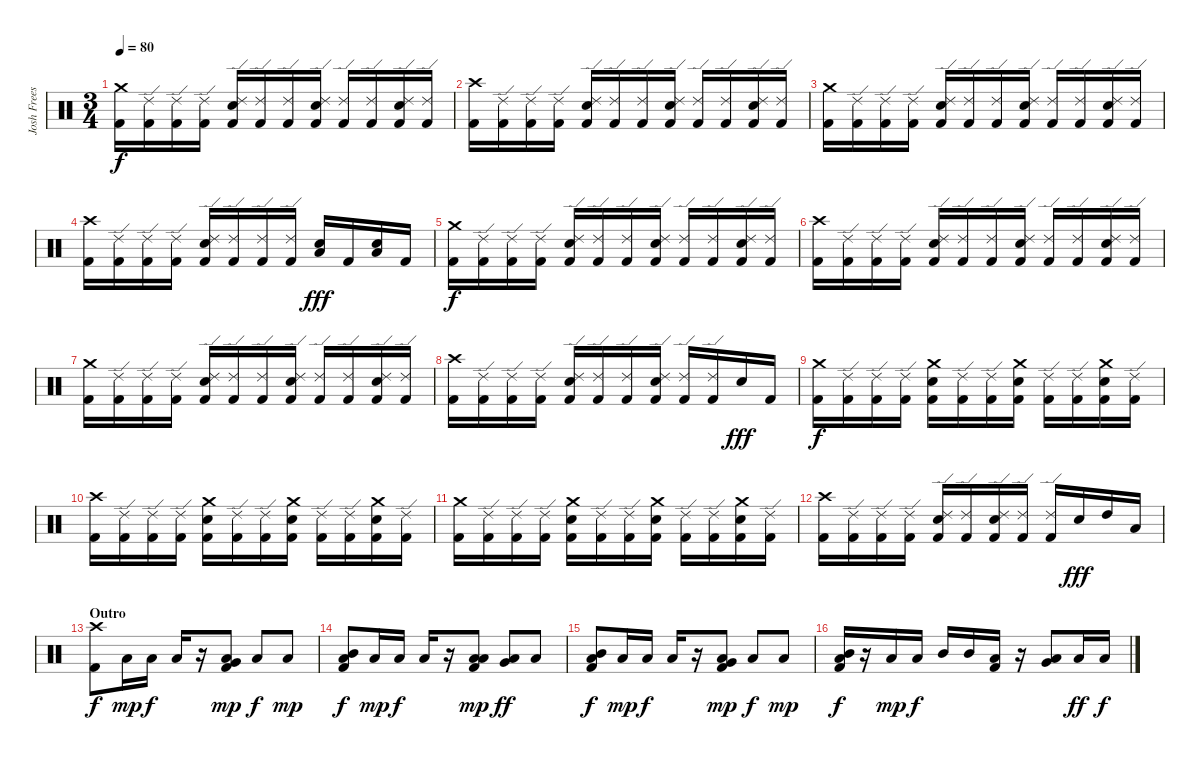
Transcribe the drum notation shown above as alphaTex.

\track ("Josh Freese" "Josh Frees") {instrument percussion}
\staff {score}
\articulation defaults
\ts (3 4)
\tempo 80
\clef neutral
\ks c
("Crash medium (hit)" "Kick (hit) 2").16{dy f} ("Ride (edge) 2" "Kick (hit) 2").16 ("Ride (edge) 2" "Kick (hit) 2").16 ("Ride (edge) 2" "Kick (hit) 2").16 ("Ride (edge) 2" "Electric Snare (hit)" "Kick (hit) 2").16 ("Ride (edge) 2" "Kick (hit) 2").16 ("Ride (edge) 2" "Kick (hit) 2").16 ("Ride (edge) 2" "Electric Snare (hit)" "Kick (hit) 2").16 ("Ride (edge) 2" "Kick (hit) 2").16 ("Ride (edge) 2" "Kick (hit) 2").16 ("Ride (edge) 2" "Electric Snare (hit)" "Kick (hit) 2").16 ("Ride (edge) 2" "Kick (hit) 2").16 |
("Crash high (hit)" "Kick (hit) 2").16 ("Ride (edge) 2" "Kick (hit) 2").16 ("Ride (edge) 2" "Kick (hit) 2").16 ("Ride (edge) 2" "Kick (hit) 2").16 ("Ride (edge) 2" "Electric Snare (hit)" "Kick (hit) 2").16 ("Ride (edge) 2" "Kick (hit) 2").16 ("Ride (edge) 2" "Kick (hit) 2").16 ("Ride (edge) 2" "Electric Snare (hit)" "Kick (hit) 2").16 ("Ride (edge) 2" "Kick (hit) 2").16 ("Ride (edge) 2" "Kick (hit) 2").16 ("Ride (edge) 2" "Electric Snare (hit)" "Kick (hit) 2").16 ("Ride (edge) 2" "Kick (hit) 2").16 |
("Crash medium (hit)" "Kick (hit) 2").16 ("Ride (edge) 2" "Kick (hit) 2").16 ("Ride (edge) 2" "Kick (hit) 2").16 ("Ride (edge) 2" "Kick (hit) 2").16 ("Ride (edge) 2" "Electric Snare (hit)" "Kick (hit) 2").16 ("Ride (edge) 2" "Kick (hit) 2").16 ("Ride (edge) 2" "Kick (hit) 2").16 ("Ride (edge) 2" "Electric Snare (hit)" "Kick (hit) 2").16 ("Ride (edge) 2" "Kick (hit) 2").16 ("Ride (edge) 2" "Kick (hit) 2").16 ("Ride (edge) 2" "Electric Snare (hit)" "Kick (hit) 2").16 ("Ride (edge) 2" "Kick (hit) 2").16 |
("Crash high (hit)" "Kick (hit) 2").16 ("Ride (edge) 2" "Kick (hit) 2").16 ("Ride (edge) 2" "Kick (hit) 2").16 ("Ride (edge) 2" "Kick (hit) 2").16 ("Ride (edge) 2" "Electric Snare (hit)" "Kick (hit) 2").16 ("Ride (edge) 2" "Kick (hit) 2").16 ("Ride (edge) 2" "Kick (hit) 2").16 ("Ride (edge) 2" "Kick (hit) 2").16 ("Electric Snare (hit)" "Low Floor Tom (hit)").16{dy fff} "Kick (hit) 2".16 ("Electric Snare (hit)" "Low Floor Tom (hit)").16 "Kick (hit) 2".16 |
("Crash medium (hit)" "Kick (hit) 2").16{dy f} ("Ride (edge) 2" "Kick (hit) 2").16 ("Ride (edge) 2" "Kick (hit) 2").16 ("Ride (edge) 2" "Kick (hit) 2").16 ("Ride (edge) 2" "Electric Snare (hit)" "Kick (hit) 2").16 ("Ride (edge) 2" "Kick (hit) 2").16 ("Ride (edge) 2" "Kick (hit) 2").16 ("Ride (edge) 2" "Electric Snare (hit)" "Kick (hit) 2").16 ("Ride (edge) 2" "Kick (hit) 2").16 ("Ride (edge) 2" "Kick (hit) 2").16 ("Ride (edge) 2" "Electric Snare (hit)" "Kick (hit) 2").16 ("Ride (edge) 2" "Kick (hit) 2").16 |
("Crash high (hit)" "Kick (hit) 2").16 ("Ride (edge) 2" "Kick (hit) 2").16 ("Ride (edge) 2" "Kick (hit) 2").16 ("Ride (edge) 2" "Kick (hit) 2").16 ("Ride (edge) 2" "Electric Snare (hit)" "Kick (hit) 2").16 ("Ride (edge) 2" "Kick (hit) 2").16 ("Ride (edge) 2" "Kick (hit) 2").16 ("Ride (edge) 2" "Electric Snare (hit)" "Kick (hit) 2").16 ("Ride (edge) 2" "Kick (hit) 2").16 ("Ride (edge) 2" "Kick (hit) 2").16 ("Ride (edge) 2" "Electric Snare (hit)" "Kick (hit) 2").16 ("Ride (edge) 2" "Kick (hit) 2").16 |
("Crash medium (hit)" "Kick (hit) 2").16 ("Ride (edge) 2" "Kick (hit) 2").16 ("Ride (edge) 2" "Kick (hit) 2").16 ("Ride (edge) 2" "Kick (hit) 2").16 ("Ride (edge) 2" "Electric Snare (hit)" "Kick (hit) 2").16 ("Ride (edge) 2" "Kick (hit) 2").16 ("Ride (edge) 2" "Kick (hit) 2").16 ("Ride (edge) 2" "Electric Snare (hit)" "Kick (hit) 2").16 ("Ride (edge) 2" "Kick (hit) 2").16 ("Ride (edge) 2" "Kick (hit) 2").16 ("Ride (edge) 2" "Electric Snare (hit)" "Kick (hit) 2").16 ("Ride (edge) 2" "Kick (hit) 2").16 |
("Crash high (hit)" "Kick (hit) 2").16 ("Ride (edge) 2" "Kick (hit) 2").16 ("Ride (edge) 2" "Kick (hit) 2").16 ("Ride (edge) 2" "Kick (hit) 2").16 ("Ride (edge) 2" "Electric Snare (hit)" "Kick (hit) 2").16 ("Ride (edge) 2" "Kick (hit) 2").16 ("Ride (edge) 2" "Kick (hit) 2").16 ("Ride (edge) 2" "Electric Snare (hit)" "Kick (hit) 2").16 ("Ride (edge) 2" "Kick (hit) 2").16 ("Ride (edge) 2" "Kick (hit) 2").16 "Electric Snare (hit)".16{dy fff} "Kick (hit) 2".16 |
("Crash medium (hit)" "Kick (hit) 2").16{dy f} ("Ride (edge) 2" "Kick (hit) 2").16 ("Ride (edge) 2" "Kick (hit) 2").16 ("Ride (edge) 2" "Kick (hit) 2").16 ("Crash medium (hit)" "Electric Snare (hit)" "Kick (hit) 2").16 ("Ride (edge) 2" "Kick (hit) 2").16 ("Ride (edge) 2" "Kick (hit) 2").16 ("Crash medium (hit)" "Electric Snare (hit)" "Kick (hit) 2").16 ("Ride (edge) 2" "Kick (hit) 2").16 ("Ride (edge) 2" "Kick (hit) 2").16 ("Crash medium (hit)" "Electric Snare (hit)" "Kick (hit) 2").16 ("Ride (edge) 2" "Kick (hit) 2").16 |
("Crash high (hit)" "Kick (hit) 2").16 ("Ride (edge) 2" "Kick (hit) 2").16 ("Ride (edge) 2" "Kick (hit) 2").16 ("Ride (edge) 2" "Kick (hit) 2").16 ("Crash medium (hit)" "Electric Snare (hit)" "Kick (hit) 2").16 ("Ride (edge) 2" "Kick (hit) 2").16 ("Ride (edge) 2" "Kick (hit) 2").16 ("Crash medium (hit)" "Electric Snare (hit)" "Kick (hit) 2").16 ("Ride (edge) 2" "Kick (hit) 2").16 ("Ride (edge) 2" "Kick (hit) 2").16 ("Crash medium (hit)" "Electric Snare (hit)" "Kick (hit) 2").16 ("Ride (edge) 2" "Kick (hit) 2").16 |
("Crash medium (hit)" "Kick (hit) 2").16 ("Ride (edge) 2" "Kick (hit) 2").16 ("Ride (edge) 2" "Kick (hit) 2").16 ("Ride (edge) 2" "Kick (hit) 2").16 ("Crash medium (hit)" "Electric Snare (hit)" "Kick (hit) 2").16 ("Ride (edge) 2" "Kick (hit) 2").16 ("Ride (edge) 2" "Kick (hit) 2").16 ("Crash medium (hit)" "Electric Snare (hit)" "Kick (hit) 2").16 ("Ride (edge) 2" "Kick (hit) 2").16 ("Ride (edge) 2" "Kick (hit) 2").16 ("Crash medium (hit)" "Electric Snare (hit)" "Kick (hit) 2").16 ("Ride (edge) 2" "Kick (hit) 2").16 |
("Crash high (hit)" "Kick (hit) 2").16 ("Ride (edge) 2" "Kick (hit) 2").16 ("Ride (edge) 2" "Kick (hit) 2").16 ("Ride (edge) 2" "Kick (hit) 2").16 ("Ride (edge) 2" "Electric Snare (hit)" "Kick (hit) 2").16 ("Ride (edge) 2" "Kick (hit) 2").16 ("Ride (edge) 2" "Electric Snare (hit)" "Kick (hit) 2").16 ("Ride (edge) 2" "Kick (hit) 2").16 ("Ride (edge) 2" "Kick (hit) 2").16 "Electric Snare (hit)".16{dy fff} "High Tom (hit)".16 "Low Tom (hit)".16 |
\section ("" "Outro")
("Crash high (hit)" "Kick (hit) 2").8{dy f} "Low Floor Tom (hit)".16{dy mp} "Low Tom (hit)".16{dy f} "Low Floor Tom (hit)".16 r.16 ("Very Low Tom (hit)" "Low Floor Tom (hit)" "Kick (hit) 2").8{dy mp} "Low Floor Tom (hit)".8{dy f} "Low Floor Tom (hit)".8{dy mp} |
("Mid Tom (hit)" "Low Floor Tom (hit)" "Kick (hit) 2").8{dy f} "Low Floor Tom (hit)".16{dy mp} "Low Tom (hit)".16{dy f} "Low Floor Tom (hit)".16 r.16 ("Low Tom (hit)" "Low Floor Tom (hit)" "Kick (hit) 2").8{dy mp} ("Very Low Tom (hit)" "Low Floor Tom (hit)").8{dy ff} "Low Floor Tom (hit)".8 |
("Mid Tom (hit)" "Low Floor Tom (hit)" "Kick (hit) 2").8{dy f} "Low Floor Tom (hit)".16{dy mp} "Low Tom (hit)".16{dy f} "Low Floor Tom (hit)".16 r.16 ("Very Low Tom (hit)" "Low Floor Tom (hit)" "Kick (hit) 2").8{dy mp} "Low Floor Tom (hit)".8{dy f} "Low Floor Tom (hit)".8{dy mp} |
("Mid Tom (hit)" "Low Floor Tom (hit)" "Kick (hit) 2").16{dy f} r.16 "Low Floor Tom (hit)".16{dy mp} "Low Tom (hit)".16{dy f} "Mid Tom (hit)".16 "Mid Tom (hit)".16 ("Low Tom (hit)" "Kick (hit) 2").16 r.16 ("Very Low Tom (hit)" "Low Floor Tom (hit)").8 "Low Floor Tom (hit)".16{dy ff} "Low Floor Tom (hit)".16{dy f}
